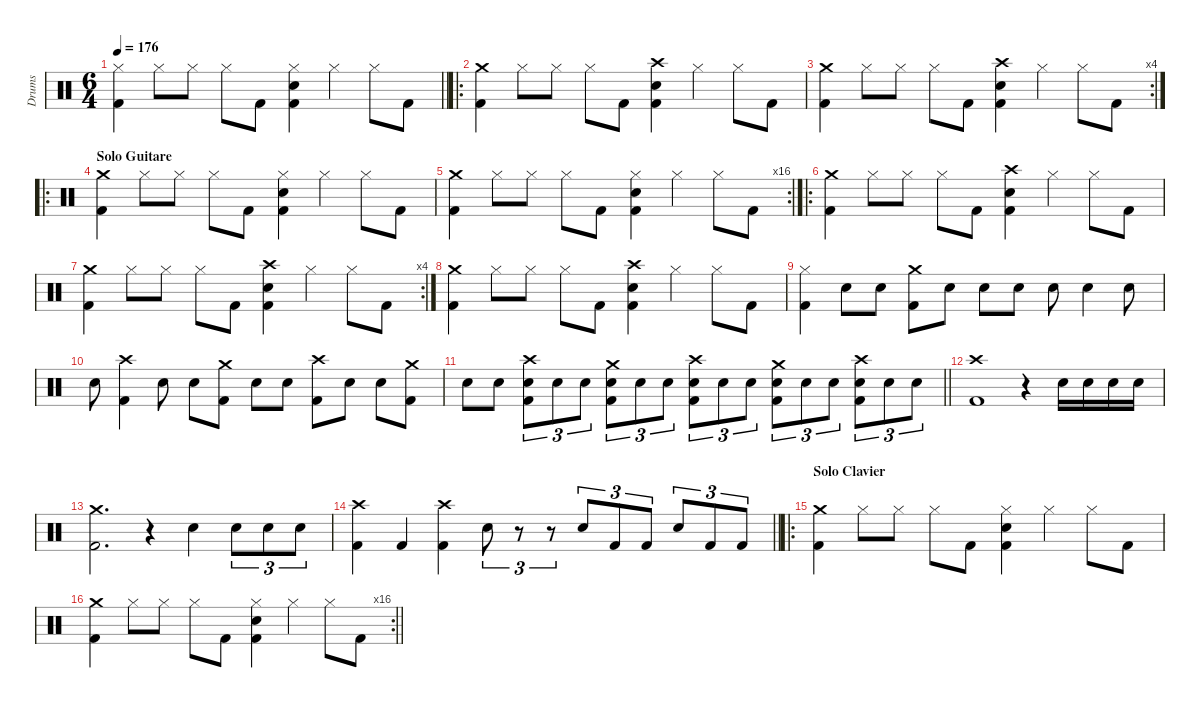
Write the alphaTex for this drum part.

\hideDynamics
\bracketExtendMode groupsimilarinstruments
\otherSystemsTrackNameOrientation horizontal
\track ("Drumkit" "Drums") {defaultSystemsLayout 4 instrument percussion}
\staff {score}
\articulation defaults
\ts (6 4)
\tempo 176
\clef neutral
\barLineRight lightlight
\ks c
("Hi-Hat (closed)" "Kick (hit) 2").4{dy f beam Down} "Hi-Hat (closed)".8{beam Down} "Hi-Hat (closed)".8{beam Down} "Hi-Hat (closed)".8{beam Down} "Kick (hit) 2".8{beam Down} ("Hi-Hat (closed)" "Snare (hit) 2" "Kick (hit) 2").4{beam Down} "Hi-Hat (closed)".4{beam Down} "Hi-Hat (closed)".8{beam Down} "Kick (hit) 2".8{beam Down} |
\ro
("Crash medium (hit)" "Kick (hit) 2").4{dy ff beam Down} "Hi-Hat (closed)".8{dy f beam Down} "Hi-Hat (closed)".8{beam Down} "Hi-Hat (closed)".8{beam Down} "Kick (hit) 2".8{beam Down} ("Crash high (hit)" "Snare (hit) 2" "Kick (hit) 2").4{beam Down} "Hi-Hat (closed)".4{beam Down} "Hi-Hat (closed)".8{beam Down} "Kick (hit) 2".8{beam Down} |
\rc 4
("Crash medium (hit)" "Kick (hit) 2").4{dy ff beam Down} "Hi-Hat (closed)".8{dy f beam Down} "Hi-Hat (closed)".8{beam Down} "Hi-Hat (closed)".8{beam Down} "Kick (hit) 2".8{beam Down} ("Crash high (hit)" "Snare (hit) 2" "Kick (hit) 2").4{beam Down} "Hi-Hat (closed)".4{beam Down} "Hi-Hat (closed)".8{beam Down} "Kick (hit) 2".8{beam Down} |
\ro
\section ("" "Solo Guitare")
("Crash medium (hit)" "Kick (hit) 2").4{dy ff beam Down} "Hi-Hat (closed)".8{dy f beam Down} "Hi-Hat (closed)".8{beam Down} "Hi-Hat (closed)".8{beam Down} "Kick (hit) 2".8{beam Down} ("Hi-Hat (closed)" "Snare (hit) 2" "Kick (hit) 2").4{beam Down} "Hi-Hat (closed)".4{beam Down} "Hi-Hat (closed)".8{beam Down} "Kick (hit) 2".8{beam Down} |
\rc 16
("Crash medium (hit)" "Kick (hit) 2").4{dy ff beam Down} "Hi-Hat (closed)".8{dy f beam Down} "Hi-Hat (closed)".8{beam Down} "Hi-Hat (closed)".8{beam Down} "Kick (hit) 2".8{beam Down} ("Hi-Hat (closed)" "Snare (hit) 2" "Kick (hit) 2").4{beam Down} "Hi-Hat (closed)".4{beam Down} "Hi-Hat (closed)".8{beam Down} "Kick (hit) 2".8{beam Down} |
\ro
("Crash medium (hit)" "Kick (hit) 2").4{dy ff beam Down} "Hi-Hat (closed)".8{dy f beam Down} "Hi-Hat (closed)".8{beam Down} "Hi-Hat (closed)".8{beam Down} "Kick (hit) 2".8{beam Down} ("Crash high (hit)" "Snare (hit) 2" "Kick (hit) 2").4{beam Down} "Hi-Hat (closed)".4{beam Down} "Hi-Hat (closed)".8{beam Down} "Kick (hit) 2".8{beam Down} |
\rc 4
("Crash medium (hit)" "Kick (hit) 2").4{dy ff beam Down} "Hi-Hat (closed)".8{dy f beam Down} "Hi-Hat (closed)".8{beam Down} "Hi-Hat (closed)".8{beam Down} "Kick (hit) 2".8{beam Down} ("Crash high (hit)" "Snare (hit) 2" "Kick (hit) 2").4{beam Down} "Hi-Hat (closed)".4{beam Down} "Hi-Hat (closed)".8{beam Down} "Kick (hit) 2".8{beam Down} |
("Crash medium (hit)" "Kick (hit) 2").4{dy ff beam Down} "Hi-Hat (closed)".8{dy f beam Down} "Hi-Hat (closed)".8{beam Down} "Hi-Hat (closed)".8{beam Down} "Kick (hit) 2".8{beam Down} ("Crash high (hit)" "Snare (hit) 2" "Kick (hit) 2").4{beam Down} "Hi-Hat (closed)".4{beam Down} "Hi-Hat (closed)".8{beam Down} "Kick (hit) 2".8{beam Down} |
("Hi-Hat (closed)" "Kick (hit) 2").4{beam Down} "Snare (hit) 2".8{beam Down} "Snare (hit) 2".8{beam Down} ("Crash medium (hit)" "Kick (hit) 2").8{beam Down} "Snare (hit) 2".8{beam Down} "Snare (hit) 2".8{beam Down} "Snare (hit) 2".8{beam Down} "Snare (hit) 2".8{beam Down} "Snare (hit) 2".4{beam Down} "Snare (hit) 2".8{beam Down} |
"Snare (hit) 2".8{beam Down} ("Crash high (hit)" "Kick (hit) 2").4{beam Down} "Snare (hit) 2".8{beam Down} "Snare (hit) 2".8{beam Down} ("Crash medium (hit)" "Kick (hit) 2").8{beam Down} "Snare (hit) 2".8{beam Down} "Snare (hit) 2".8{beam Down} ("Crash high (hit)" "Kick (hit) 2").8{beam Down} "Snare (hit) 2".8{beam Down} "Snare (hit) 2".8{beam Down} ("Crash medium (hit)" "Kick (hit) 2").8{beam Down} |
\barLineRight lightlight "Snare (hit) 2".8{beam Down} "Snare (hit) 2".8{beam Down}
("Crash high (hit)" "Snare (hit) 2" "Kick (hit) 2").8{tu (3 2) beam Down} "Snare (hit) 2".8{tu (3 2) beam Down} "Snare (hit) 2".8{tu (3 2) beam Down} ("Crash medium (hit)" "Snare (hit) 2" "Kick (hit) 2").8{tu (3 2) beam Down} "Snare (hit) 2".8{tu (3 2) beam Down} "Snare (hit) 2".8{tu (3 2) beam Down} ("Crash high (hit)" "Snare (hit) 2" "Kick (hit) 2").8{tu (3 2) beam Down} "Snare (hit) 2".8{tu (3 2) beam Down} "Snare (hit) 2".8{tu (3 2) beam Down} ("Crash medium (hit)" "Snare (hit) 2" "Kick (hit) 2").8{tu (3 2) beam Down} "Snare (hit) 2".8{tu (3 2) beam Down} "Snare (hit) 2".8{tu (3 2) beam Down} ("Crash high (hit)" "Snare (hit) 2" "Kick (hit) 2").8{tu (3 2) beam Down} "Snare (hit) 2".8{tu (3 2) beam Down} "Snare (hit) 2".8{tu (3 2) beam Down} |
("Crash high (hit)" "Kick (hit) 2").1{dy ff beam Down} r.4{beam Down} "Snare (hit) 2".16{dy mf beam Down} "Snare (hit) 2".16{dy f beam Down} "Snare (hit) 2".16{dy ff beam Down} "Snare (hit) 2".16{dy fff beam Down} |
("Crash medium (hit)" "Kick (hit) 2").2{d dy ff beam Down} r.4{beam Down} "Snare (hit) 2".4{dy fff beam Down} "Snare (hit) 2".8{tu (3 2) dy ff beam Down} "Snare (hit) 2".8{tu (3 2) beam Down} "Snare (hit) 2".8{tu (3 2) beam Down} |
\barLineRight lightlight
("Crash high (hit)" "Kick (hit) 2").4{dy f beam Down} "Kick (hit) 2".4{beam Up} ("Crash high (hit)" "Kick (hit) 2").4{beam Down} "Snare (hit) 2".8{tu (3 2) dy fff beam Down} r.8{tu (3 2) beam Down} r.8{tu (3 2) beam Down} "Snare (hit) 2".8{tu (3 2) beam Up} "Kick (hit) 2".8{tu (3 2) dy ff beam Up} "Kick (hit) 2".8{tu (3 2) beam Up} "Snare (hit) 2".8{tu (3 2) dy fff beam Up} "Kick (hit) 2".8{tu (3 2) dy ff beam Up} "Kick (hit) 2".8{tu (3 2) beam Up} |
\ro
\section ("" "Solo Clavier")
("Crash medium (hit)" "Kick (hit) 2").4{beam Down} "Hi-Hat (closed)".8{dy f beam Down} "Hi-Hat (closed)".8{beam Down} "Hi-Hat (closed)".8{beam Down} "Kick (hit) 2".8{beam Down} ("Hi-Hat (closed)" "Snare (hit) 2" "Kick (hit) 2").4{beam Down} "Hi-Hat (closed)".4{beam Down} "Hi-Hat (closed)".8{beam Down} "Kick (hit) 2".8{beam Down} |
\rc 16
\barLineRight lightlight
("Crash medium (hit)" "Kick (hit) 2").4{dy ff beam Down} "Hi-Hat (closed)".8{dy f beam Down} "Hi-Hat (closed)".8{beam Down} "Hi-Hat (closed)".8{beam Down} "Kick (hit) 2".8{beam Down} ("Hi-Hat (closed)" "Snare (hit) 2" "Kick (hit) 2").4{beam Down} "Hi-Hat (closed)".4{beam Down} "Hi-Hat (closed)".8{beam Down} "Kick (hit) 2".8{beam Down}
